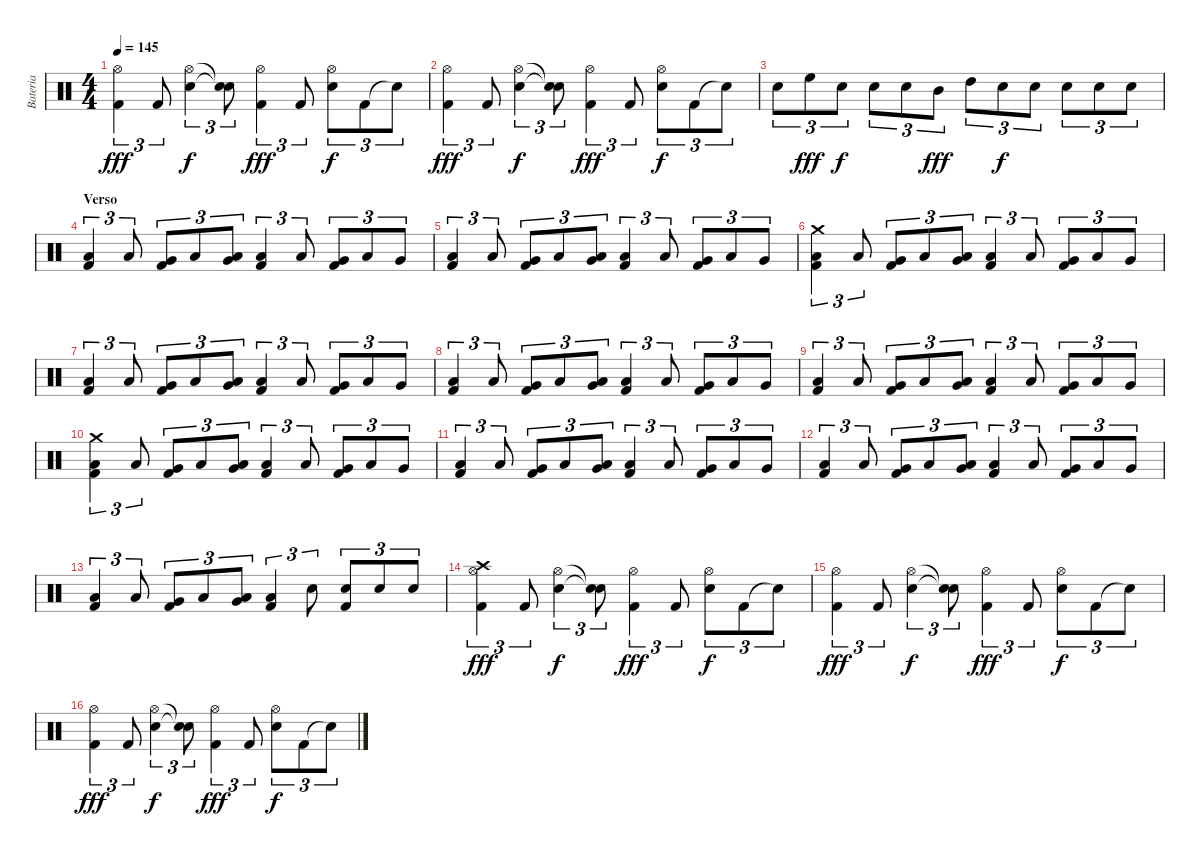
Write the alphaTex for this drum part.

\track ("Bateria" "Bateria") {instrument percussion}
\staff {score}
\articulation defaults
\ts (4 4)
\tempo 145
\clef neutral
\ks c
("Hi-Hat (open)" "Kick (hit) 2").4{tu (3 2) dy fff} "Kick (hit) 2".8{tu (3 2)} ("Hi-Hat (open)" "Snare (hit) 2").4{tu (3 2) dy f} ("Snare (hit)"{t} "Snare (hit)"{t}).8{tu (3 2)} ("Hi-Hat (open)" "Kick (hit) 2").4{tu (3 2) dy fff} "Kick (hit) 2".8{tu (3 2)} ("Hi-Hat (open)" "Snare (hit) 2").8{tu (3 2) dy f} "Kick (hit) 2".8{tu (3 2)} "Snare (hit)"{t}.8{tu (3 2)} |
("Hi-Hat (open)" "Kick (hit) 2").4{tu (3 2) dy fff} "Kick (hit) 2".8{tu (3 2)} ("Hi-Hat (open)" "Snare (hit) 2").4{tu (3 2) dy f} ("Snare (hit)"{t} "Snare (hit)"{t}).8{tu (3 2)} ("Hi-Hat (open)" "Kick (hit) 2").4{tu (3 2) dy fff} "Kick (hit) 2".8{tu (3 2)} ("Hi-Hat (open)" "Snare (hit) 2").8{tu (3 2) dy f} "Kick (hit) 2".8{tu (3 2)} "Snare (hit)"{t}.8{tu (3 2)} |
"Snare (hit) 2".8{tu (3 2)} "High Floor Tom (hit)".8{tu (3 2) dy fff} "Snare (hit) 2".8{tu (3 2) dy f} "Snare (hit) 2".8{tu (3 2)} "Snare (hit) 2".8{tu (3 2)} "Mid Tom (hit)".8{tu (3 2) dy fff} "High Tom (hit)".8{tu (3 2)} "Snare (hit) 2".8{tu (3 2) dy f} "Snare (hit) 2".8{tu (3 2)} "Snare (hit) 2".8{tu (3 2)} "Snare (hit) 2".8{tu (3 2)} "Snare (hit) 2".8{tu (3 2)} |
\section ("" "Verso")
("Kick (hit) 2" "Low Floor Tom (hit)").4{tu (3 2)} "Low Floor Tom (hit)".8{tu (3 2)} ("Kick (hit) 2" "Very Low Tom (hit)").8{tu (3 2)} "Low Floor Tom (hit)".8{tu (3 2)} ("Very Low Tom (hit)" "Low Tom (hit)").8{tu (3 2)} ("Kick (hit) 2" "Low Floor Tom (hit)").4{tu (3 2)} "Low Floor Tom (hit)".8{tu (3 2)} ("Kick (hit) 2" "Very Low Tom (hit)").8{tu (3 2)} "Low Floor Tom (hit)".8{tu (3 2)} "Very Low Tom (hit)".8{tu (3 2)} |
("Kick (hit) 2" "Low Floor Tom (hit)").4{tu (3 2)} "Low Floor Tom (hit)".8{tu (3 2)} ("Kick (hit) 2" "Very Low Tom (hit)").8{tu (3 2)} "Low Floor Tom (hit)".8{tu (3 2)} ("Very Low Tom (hit)" "Low Tom (hit)").8{tu (3 2)} ("Kick (hit) 2" "Low Floor Tom (hit)").4{tu (3 2)} "Low Floor Tom (hit)".8{tu (3 2)} ("Kick (hit) 2" "Very Low Tom (hit)").8{tu (3 2)} "Low Floor Tom (hit)".8{tu (3 2)} "Very Low Tom (hit)".8{tu (3 2)} |
("Kick (hit) 2" "Low Floor Tom (hit)" "Crash medium (hit)").4{tu (3 2)} "Low Floor Tom (hit)".8{tu (3 2)} ("Kick (hit) 2" "Very Low Tom (hit)").8{tu (3 2)} "Low Floor Tom (hit)".8{tu (3 2)} ("Very Low Tom (hit)" "Low Tom (hit)").8{tu (3 2)} ("Kick (hit) 2" "Low Floor Tom (hit)").4{tu (3 2)} "Low Floor Tom (hit)".8{tu (3 2)} ("Kick (hit) 2" "Very Low Tom (hit)").8{tu (3 2)} "Low Floor Tom (hit)".8{tu (3 2)} "Very Low Tom (hit)".8{tu (3 2)} |
("Kick (hit) 2" "Low Floor Tom (hit)").4{tu (3 2)} "Low Floor Tom (hit)".8{tu (3 2)} ("Kick (hit) 2" "Very Low Tom (hit)").8{tu (3 2)} "Low Floor Tom (hit)".8{tu (3 2)} ("Very Low Tom (hit)" "Low Tom (hit)").8{tu (3 2)} ("Kick (hit) 2" "Low Floor Tom (hit)").4{tu (3 2)} "Low Floor Tom (hit)".8{tu (3 2)} ("Kick (hit) 2" "Very Low Tom (hit)").8{tu (3 2)} "Low Floor Tom (hit)".8{tu (3 2)} "Very Low Tom (hit)".8{tu (3 2)} |
("Kick (hit) 2" "Low Floor Tom (hit)").4{tu (3 2)} "Low Floor Tom (hit)".8{tu (3 2)} ("Kick (hit) 2" "Very Low Tom (hit)").8{tu (3 2)} "Low Floor Tom (hit)".8{tu (3 2)} ("Very Low Tom (hit)" "Low Tom (hit)").8{tu (3 2)} ("Kick (hit) 2" "Low Floor Tom (hit)").4{tu (3 2)} "Low Floor Tom (hit)".8{tu (3 2)} ("Kick (hit) 2" "Very Low Tom (hit)").8{tu (3 2)} "Low Floor Tom (hit)".8{tu (3 2)} "Very Low Tom (hit)".8{tu (3 2)} |
("Kick (hit) 2" "Low Floor Tom (hit)").4{tu (3 2)} "Low Floor Tom (hit)".8{tu (3 2)} ("Kick (hit) 2" "Very Low Tom (hit)").8{tu (3 2)} "Low Floor Tom (hit)".8{tu (3 2)} ("Very Low Tom (hit)" "Low Tom (hit)").8{tu (3 2)} ("Kick (hit) 2" "Low Floor Tom (hit)").4{tu (3 2)} "Low Floor Tom (hit)".8{tu (3 2)} ("Kick (hit) 2" "Very Low Tom (hit)").8{tu (3 2)} "Low Floor Tom (hit)".8{tu (3 2)} "Very Low Tom (hit)".8{tu (3 2)} |
("Kick (hit) 2" "Low Floor Tom (hit)" "Crash medium (hit)").4{tu (3 2)} "Low Floor Tom (hit)".8{tu (3 2)} ("Kick (hit) 2" "Very Low Tom (hit)").8{tu (3 2)} "Low Floor Tom (hit)".8{tu (3 2)} ("Very Low Tom (hit)" "Low Tom (hit)").8{tu (3 2)} ("Kick (hit) 2" "Low Floor Tom (hit)").4{tu (3 2)} "Low Floor Tom (hit)".8{tu (3 2)} ("Kick (hit) 2" "Very Low Tom (hit)").8{tu (3 2)} "Low Floor Tom (hit)".8{tu (3 2)} "Very Low Tom (hit)".8{tu (3 2)} |
("Kick (hit) 2" "Low Floor Tom (hit)").4{tu (3 2)} "Low Floor Tom (hit)".8{tu (3 2)} ("Kick (hit) 2" "Very Low Tom (hit)").8{tu (3 2)} "Low Floor Tom (hit)".8{tu (3 2)} ("Very Low Tom (hit)" "Low Tom (hit)").8{tu (3 2)} ("Kick (hit) 2" "Low Floor Tom (hit)").4{tu (3 2)} "Low Floor Tom (hit)".8{tu (3 2)} ("Kick (hit) 2" "Very Low Tom (hit)").8{tu (3 2)} "Low Floor Tom (hit)".8{tu (3 2)} "Very Low Tom (hit)".8{tu (3 2)} |
("Kick (hit) 2" "Low Floor Tom (hit)").4{tu (3 2)} "Low Floor Tom (hit)".8{tu (3 2)} ("Kick (hit) 2" "Very Low Tom (hit)").8{tu (3 2)} "Low Floor Tom (hit)".8{tu (3 2)} ("Very Low Tom (hit)" "Low Tom (hit)").8{tu (3 2)} ("Kick (hit) 2" "Low Floor Tom (hit)").4{tu (3 2)} "Low Floor Tom (hit)".8{tu (3 2)} ("Kick (hit) 2" "Very Low Tom (hit)").8{tu (3 2)} "Low Floor Tom (hit)".8{tu (3 2)} "Very Low Tom (hit)".8{tu (3 2)} |
("Kick (hit) 2" "Low Floor Tom (hit)").4{tu (3 2)} "Low Floor Tom (hit)".8{tu (3 2)} ("Kick (hit) 2" "Very Low Tom (hit)").8{tu (3 2)} "Low Floor Tom (hit)".8{tu (3 2)} ("Very Low Tom (hit)" "Low Tom (hit)").8{tu (3 2)} ("Kick (hit) 2" "Low Floor Tom (hit)").4{tu (3 2)} "Snare (hit) 2".8{tu (3 2)} ("Kick (hit) 2" "Snare (hit) 2").8{tu (3 2)} "Snare (hit) 2".8{tu (3 2)} "Snare (hit) 2".8{tu (3 2)} |
("Hi-Hat (open)" "Kick (hit) 2" "Crash high (hit)").4{tu (3 2) dy fff} "Kick (hit) 2".8{tu (3 2)} ("Hi-Hat (open)" "Snare (hit) 2").4{tu (3 2) dy f} ("Snare (hit)"{t} "Snare (hit)"{t}).8{tu (3 2)} ("Hi-Hat (open)" "Kick (hit) 2").4{tu (3 2) dy fff} "Kick (hit) 2".8{tu (3 2)} ("Hi-Hat (open)" "Snare (hit) 2").8{tu (3 2) dy f} "Kick (hit) 2".8{tu (3 2)} "Snare (hit)"{t}.8{tu (3 2)} |
("Hi-Hat (open)" "Kick (hit) 2").4{tu (3 2) dy fff} "Kick (hit) 2".8{tu (3 2)} ("Hi-Hat (open)" "Snare (hit) 2").4{tu (3 2) dy f} ("Snare (hit)"{t} "Snare (hit)"{t}).8{tu (3 2)} ("Hi-Hat (open)" "Kick (hit) 2").4{tu (3 2) dy fff} "Kick (hit) 2".8{tu (3 2)} ("Hi-Hat (open)" "Snare (hit) 2").8{tu (3 2) dy f} "Kick (hit) 2".8{tu (3 2)} "Snare (hit)"{t}.8{tu (3 2)} |
("Hi-Hat (open)" "Kick (hit) 2").4{tu (3 2) dy fff} "Kick (hit) 2".8{tu (3 2)} ("Hi-Hat (open)" "Snare (hit) 2").4{tu (3 2) dy f} ("Snare (hit)"{t} "Snare (hit)"{t}).8{tu (3 2)} ("Hi-Hat (open)" "Kick (hit) 2").4{tu (3 2) dy fff} "Kick (hit) 2".8{tu (3 2)} ("Hi-Hat (open)" "Snare (hit) 2").8{tu (3 2) dy f} "Kick (hit) 2".8{tu (3 2)} "Snare (hit)"{t}.8{tu (3 2)}
